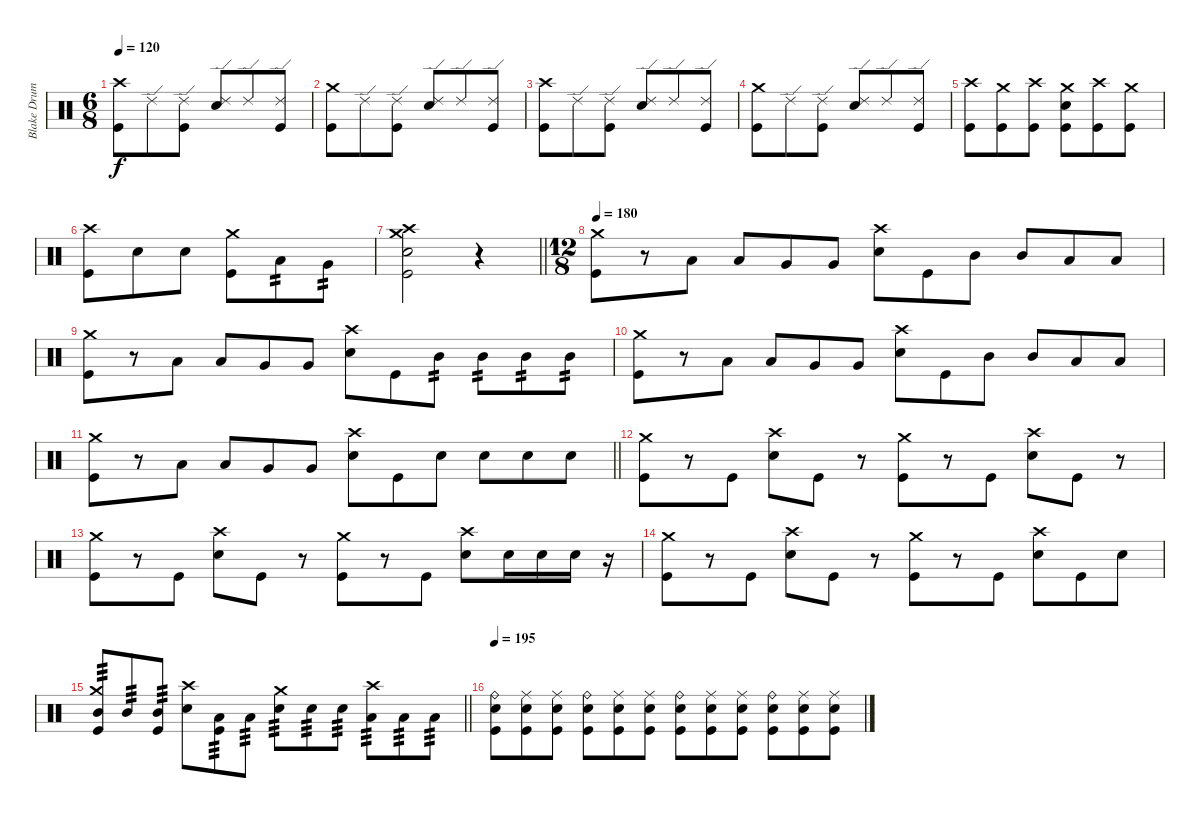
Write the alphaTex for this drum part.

\track ("Blake Drums" "Blake Drum") {instrument percussion}
\staff {score}
\articulation defaults
\ts (6 8)
\tempo 120
\clef neutral
\ks c
("Crash high (hit)" "Kick (hit)").8{dy f} "Ride (edge) 2".8 ("Ride (edge) 2" "Kick (hit)").8 ("Ride (edge) 2" "Snare (hit) 2").8 "Ride (edge) 2".8 ("Ride (edge) 2" "Kick (hit)").8 |
("Crash medium (hit)" "Kick (hit)").8 "Ride (edge) 2".8 ("Ride (edge) 2" "Kick (hit)").8 ("Ride (edge) 2" "Snare (hit) 2").8 "Ride (edge) 2".8 ("Ride (edge) 2" "Kick (hit)").8 |
("Crash high (hit)" "Kick (hit)").8 "Ride (edge) 2".8 ("Ride (edge) 2" "Kick (hit)").8 ("Ride (edge) 2" "Snare (hit) 2").8 "Ride (edge) 2".8 ("Ride (edge) 2" "Kick (hit)").8 |
("Crash medium (hit)" "Kick (hit)").8 "Ride (edge) 2".8 ("Ride (edge) 2" "Kick (hit)").8 ("Ride (edge) 2" "Snare (hit) 2").8 "Ride (edge) 2".8 ("Ride (edge) 2" "Kick (hit)").8 |
("Crash high (hit)" "Kick (hit)").8 ("Crash medium (hit)" "Kick (hit)").8 ("Crash high (hit)" "Kick (hit)").8 ("Crash medium (hit)" "Snare (hit) 2" "Kick (hit)").8 ("Crash high (hit)" "Kick (hit)").8 ("Crash medium (hit)" "Kick (hit)").8 |
("Crash high (hit)" "Kick (hit)").8 "Snare (hit) 2".8 "Snare (hit) 2".8 ("Crash medium (hit)" "Kick (hit)").8 "Low Tom (hit)".8{tp 2} "Very Low Tom (hit)".8{tp 2} |
\barLineRight lightlight
("Crash medium (hit)" "Crash high (hit)" "Snare (hit) 2" "Kick (hit)").2 r.4 |
\ts (12 8)
\tempo 180
("Crash medium (hit)" "Kick (hit)").8 r.8 "Low Tom (hit)".8 "Low Tom (hit)".8 "Very Low Tom (hit)".8 "Very Low Tom (hit)".8 ("Crash high (hit)" "Snare (hit) 2").8 "Kick (hit)".8 "Mid Tom (hit)".8 "Mid Tom (hit)".8 "Low Tom (hit)".8 "Low Tom (hit)".8 |
("Crash medium (hit)" "Kick (hit)").8 r.8 "Low Tom (hit)".8 "Low Tom (hit)".8 "Very Low Tom (hit)".8 "Very Low Tom (hit)".8 ("Crash high (hit)" "Snare (hit) 2").8 "Kick (hit)".8 "Mid Tom (hit)".8{tp 2} "Mid Tom (hit)".8{tp 2} "Mid Tom (hit)".8{tp 2} "Mid Tom (hit)".8{tp 2} |
("Crash medium (hit)" "Kick (hit)").8 r.8 "Low Tom (hit)".8 "Low Tom (hit)".8 "Very Low Tom (hit)".8 "Very Low Tom (hit)".8 ("Crash high (hit)" "Snare (hit) 2").8 "Kick (hit)".8 "Mid Tom (hit)".8 "Mid Tom (hit)".8 "Low Tom (hit)".8 "Low Tom (hit)".8 |
\barLineRight lightlight
("Crash medium (hit)" "Kick (hit)").8 r.8 "Low Tom (hit)".8 "Low Tom (hit)".8 "Very Low Tom (hit)".8 "Very Low Tom (hit)".8 ("Crash high (hit)" "Snare (hit) 2").8 "Kick (hit)".8 "Snare (hit) 2".8 "Snare (hit) 2".8 "Snare (hit) 2".8 "Snare (hit) 2".8 |
("Crash medium (hit)" "Kick (hit)").8 r.8 "Kick (hit)".8 ("Crash high (hit)" "Snare (hit) 2").8 "Kick (hit)".8 r.8 ("Crash medium (hit)" "Kick (hit)").8 r.8 "Kick (hit)".8 ("Crash high (hit)" "Snare (hit) 2").8 "Kick (hit)".8 r.8 |
("Crash medium (hit)" "Kick (hit)").8 r.8 "Kick (hit)".8 ("Crash high (hit)" "Snare (hit) 2").8 "Kick (hit)".8 r.8 ("Crash medium (hit)" "Kick (hit)").8 r.8 "Kick (hit)".8 ("Crash high (hit)" "Snare (hit) 2").8 "Snare (hit) 2".16 "Snare (hit) 2".16 "Snare (hit) 2".16 r.16 |
("Crash medium (hit)" "Kick (hit)").8 r.8 "Kick (hit)".8 ("Crash high (hit)" "Snare (hit) 2").8 "Kick (hit)".8 r.8 ("Crash medium (hit)" "Kick (hit)").8 r.8 "Kick (hit)".8 ("Crash high (hit)" "Snare (hit) 2").8 "Kick (hit)".8 "Snare (hit) 2".8 |
\barLineRight lightlight
("Crash medium (hit)" "Mid Tom (hit)" "Kick (hit)").8{tp 3} "Mid Tom (hit)".8{tp 3} ("Mid Tom (hit)" "Kick (hit)").8{tp 3} ("Crash high (hit)" "Snare (hit) 2").8 ("Low Tom (hit)" "Kick (hit)").8{tp 3} "Low Tom (hit)".8{tp 3} ("Crash medium (hit)" "Snare (hit) 2").8{tp 3} "Snare (hit) 2".8{tp 3} "Snare (hit) 2".8{tp 3} ("Crash high (hit)" "Low Tom (hit)").8{tp 3} "Low Tom (hit)".8{tp 3} "Low Tom (hit)".8{tp 3} |
\tempo 195
("Ride (bell)" "Snare (hit) 2" "Kick (hit)").8 ("Ride (middle)" "Snare (hit) 2" "Kick (hit)").8 ("Ride (middle)" "Snare (hit) 2" "Kick (hit)").8 ("Ride (bell)" "Snare (hit) 2" "Kick (hit)").8 ("Ride (middle)" "Snare (hit) 2" "Kick (hit)").8 ("Ride (middle)" "Snare (hit) 2" "Kick (hit)").8 ("Ride (bell)" "Snare (hit) 2" "Kick (hit)").8 ("Ride (middle)" "Snare (hit) 2" "Kick (hit)").8 ("Ride (middle)" "Snare (hit) 2" "Kick (hit)").8 ("Ride (bell)" "Snare (hit) 2" "Kick (hit)").8 ("Ride (middle)" "Snare (hit) 2" "Kick (hit)").8 ("Ride (middle)" "Snare (hit) 2" "Kick (hit)").8
